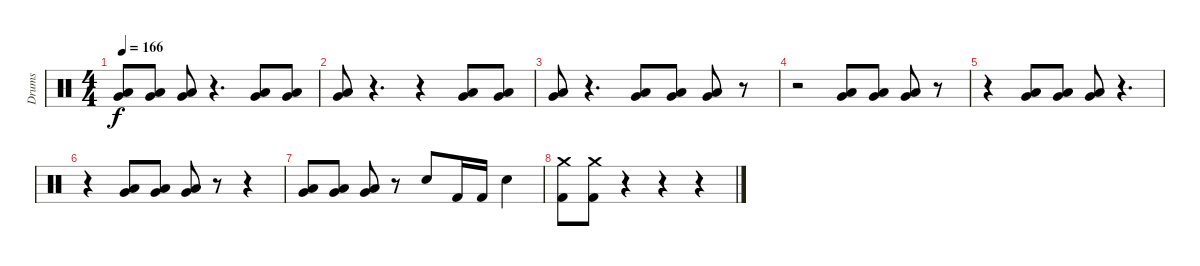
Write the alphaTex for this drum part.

\track ("Drums" "Drums") {instrument percussion}
\staff {score}
\articulation defaults
\ts (4 4)
\tempo 166
\clef neutral
\ks c
("Low Tom (hit)" "Very Low Tom (hit)").8{dy f} ("Low Tom (hit)" "Very Low Tom (hit)").8 ("Low Tom (hit)" "Very Low Tom (hit)").8 r.4{d} ("Low Tom (hit)" "Very Low Tom (hit)").8 ("Low Tom (hit)" "Very Low Tom (hit)").8 |
("Low Tom (hit)" "Very Low Tom (hit)").8 r.4{d} r.4 ("Low Tom (hit)" "Very Low Tom (hit)").8 ("Low Tom (hit)" "Very Low Tom (hit)").8 |
("Low Tom (hit)" "Very Low Tom (hit)").8 r.4{d} ("Low Tom (hit)" "Very Low Tom (hit)").8 ("Low Tom (hit)" "Very Low Tom (hit)").8 ("Low Tom (hit)" "Very Low Tom (hit)").8 r.8 |
r.2 ("Low Tom (hit)" "Very Low Tom (hit)").8 ("Low Tom (hit)" "Very Low Tom (hit)").8 ("Low Tom (hit)" "Very Low Tom (hit)").8 r.8 |
r.4 ("Low Tom (hit)" "Very Low Tom (hit)").8 ("Low Tom (hit)" "Very Low Tom (hit)").8 ("Low Tom (hit)" "Very Low Tom (hit)").8 r.4{d} |
r.4 ("Low Tom (hit)" "Very Low Tom (hit)").8 ("Low Tom (hit)" "Very Low Tom (hit)").8 ("Low Tom (hit)" "Very Low Tom (hit)").8 r.8 r.4 |
("Low Tom (hit)" "Very Low Tom (hit)").8 ("Low Tom (hit)" "Very Low Tom (hit)").8 ("Low Tom (hit)" "Very Low Tom (hit)").8 r.8 "Snare (hit) 2".8 "Kick (hit) 2".16 "Kick (hit) 2".16 "Snare (hit) 2".4 |
("Crash medium (hit)" "Kick (hit) 2").8 ("Crash medium (hit)" "Kick (hit) 2").8 r.4 r.4 r.4
